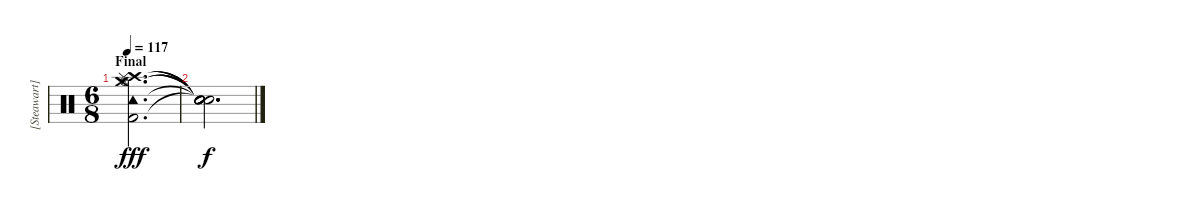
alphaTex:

\track ("[Steawart] Drums" "[Steawart]") {instrument percussion}
\staff {score}
\articulation defaults
\ts (6 8)
\section ("" "Final ")
\tempo 117
\clef neutral
\ks c
("Crash medium (hit)" "Hi-Hat (open)" "Crash high (hit)" "Tambourine (hit)" "Splash (hit)" "Kick (hit) 2").2{d dy fff} |
("Snare (hit)"{t} "Snare (hit)"{t} "Snare (hit)"{t} "Snare (hit)"{t} "Snare (hit)"{t} "Snare (hit)"{t}).2{d dy f}
